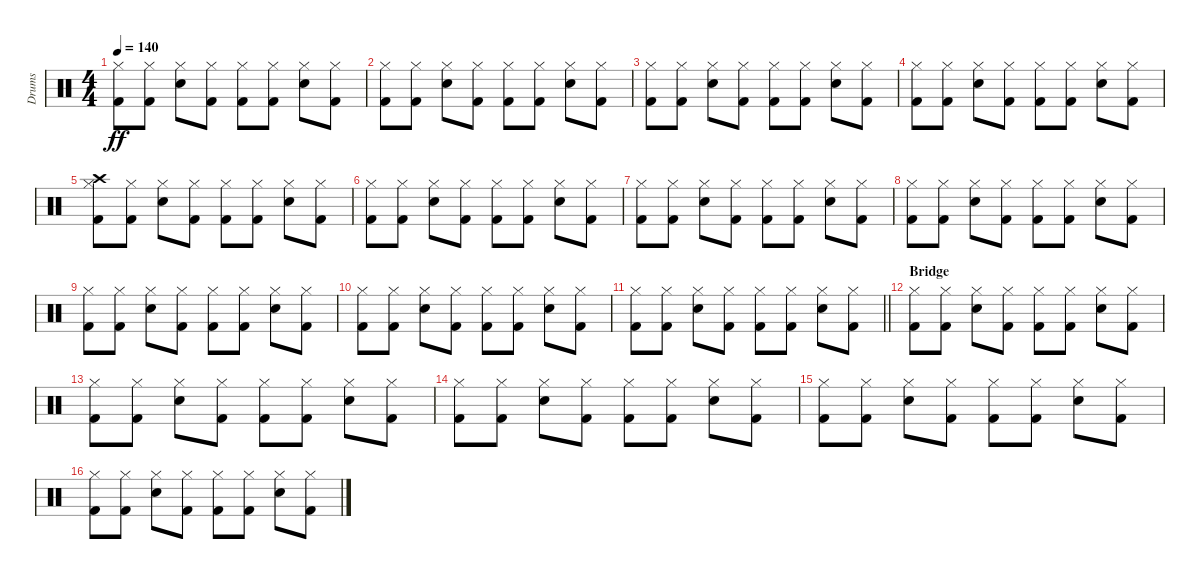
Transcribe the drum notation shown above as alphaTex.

\track ("Drums" "Drums") {instrument percussion}
\staff {score}
\articulation defaults
\ts (4 4)
\tempo 140
\clef neutral
\ks c
("Hi-Hat (closed)" "Kick (hit) 2").8{dy ff} ("Hi-Hat (closed)" "Kick (hit) 2").8 ("Hi-Hat (closed)" "Snare (hit) 2").8 ("Hi-Hat (closed)" "Kick (hit) 2").8 ("Hi-Hat (closed)" "Kick (hit) 2").8 ("Hi-Hat (closed)" "Kick (hit) 2").8 ("Hi-Hat (closed)" "Snare (hit) 2").8 ("Hi-Hat (closed)" "Kick (hit) 2").8 |
("Hi-Hat (closed)" "Kick (hit) 2").8 ("Hi-Hat (closed)" "Kick (hit) 2").8 ("Hi-Hat (closed)" "Snare (hit) 2").8 ("Hi-Hat (closed)" "Kick (hit) 2").8 ("Hi-Hat (closed)" "Kick (hit) 2").8 ("Hi-Hat (closed)" "Kick (hit) 2").8 ("Hi-Hat (closed)" "Snare (hit) 2").8 ("Hi-Hat (closed)" "Kick (hit) 2").8 |
("Hi-Hat (closed)" "Kick (hit) 2").8 ("Hi-Hat (closed)" "Kick (hit) 2").8 ("Hi-Hat (closed)" "Snare (hit) 2").8 ("Hi-Hat (closed)" "Kick (hit) 2").8 ("Hi-Hat (closed)" "Kick (hit) 2").8 ("Hi-Hat (closed)" "Kick (hit) 2").8 ("Hi-Hat (closed)" "Snare (hit) 2").8 ("Hi-Hat (closed)" "Kick (hit) 2").8 |
("Hi-Hat (closed)" "Kick (hit) 2").8 ("Hi-Hat (closed)" "Kick (hit) 2").8 ("Hi-Hat (closed)" "Snare (hit) 2").8 ("Hi-Hat (closed)" "Kick (hit) 2").8 ("Hi-Hat (closed)" "Kick (hit) 2").8 ("Hi-Hat (closed)" "Kick (hit) 2").8 ("Hi-Hat (closed)" "Snare (hit) 2").8 ("Hi-Hat (closed)" "Kick (hit) 2").8 |
("Crash high (hit)" "Hi-Hat (closed)" "Kick (hit) 2").8{volume 12} ("Hi-Hat (closed)" "Kick (hit) 2").8 ("Hi-Hat (closed)" "Snare (hit) 2").8 ("Hi-Hat (closed)" "Kick (hit) 2").8 ("Hi-Hat (closed)" "Kick (hit) 2").8 ("Hi-Hat (closed)" "Kick (hit) 2").8 ("Hi-Hat (closed)" "Snare (hit) 2").8 ("Hi-Hat (closed)" "Kick (hit) 2").8 |
("Hi-Hat (closed)" "Kick (hit) 2").8 ("Hi-Hat (closed)" "Kick (hit) 2").8 ("Hi-Hat (closed)" "Snare (hit) 2").8 ("Hi-Hat (closed)" "Kick (hit) 2").8 ("Hi-Hat (closed)" "Kick (hit) 2").8 ("Hi-Hat (closed)" "Kick (hit) 2").8 ("Hi-Hat (closed)" "Snare (hit) 2").8 ("Hi-Hat (closed)" "Kick (hit) 2").8 |
("Hi-Hat (closed)" "Kick (hit) 2").8 ("Hi-Hat (closed)" "Kick (hit) 2").8 ("Hi-Hat (closed)" "Snare (hit) 2").8 ("Hi-Hat (closed)" "Kick (hit) 2").8 ("Hi-Hat (closed)" "Kick (hit) 2").8 ("Hi-Hat (closed)" "Kick (hit) 2").8 ("Hi-Hat (closed)" "Snare (hit) 2").8 ("Hi-Hat (closed)" "Kick (hit) 2").8 |
("Hi-Hat (closed)" "Kick (hit) 2").8 ("Hi-Hat (closed)" "Kick (hit) 2").8 ("Hi-Hat (closed)" "Snare (hit) 2").8 ("Hi-Hat (closed)" "Kick (hit) 2").8 ("Hi-Hat (closed)" "Kick (hit) 2").8 ("Hi-Hat (closed)" "Kick (hit) 2").8 ("Hi-Hat (closed)" "Snare (hit) 2").8 ("Hi-Hat (closed)" "Kick (hit) 2").8 |
("Hi-Hat (closed)" "Kick (hit) 2").8 ("Hi-Hat (closed)" "Kick (hit) 2").8 ("Hi-Hat (closed)" "Snare (hit) 2").8 ("Hi-Hat (closed)" "Kick (hit) 2").8 ("Hi-Hat (closed)" "Kick (hit) 2").8 ("Hi-Hat (closed)" "Kick (hit) 2").8 ("Hi-Hat (closed)" "Snare (hit) 2").8 ("Hi-Hat (closed)" "Kick (hit) 2").8 |
("Hi-Hat (closed)" "Kick (hit) 2").8 ("Hi-Hat (closed)" "Kick (hit) 2").8 ("Hi-Hat (closed)" "Snare (hit) 2").8 ("Hi-Hat (closed)" "Kick (hit) 2").8 ("Hi-Hat (closed)" "Kick (hit) 2").8 ("Hi-Hat (closed)" "Kick (hit) 2").8 ("Hi-Hat (closed)" "Snare (hit) 2").8 ("Hi-Hat (closed)" "Kick (hit) 2").8 |
\barLineRight lightlight
("Hi-Hat (closed)" "Kick (hit) 2").8 ("Hi-Hat (closed)" "Kick (hit) 2").8 ("Hi-Hat (closed)" "Snare (hit) 2").8 ("Hi-Hat (closed)" "Kick (hit) 2").8 ("Hi-Hat (closed)" "Kick (hit) 2").8 ("Hi-Hat (closed)" "Kick (hit) 2").8 ("Hi-Hat (closed)" "Snare (hit) 2").8 ("Hi-Hat (closed)" "Kick (hit) 2").8 |
\section ("" "Bridge")
("Hi-Hat (closed)" "Kick (hit) 2").8 ("Hi-Hat (closed)" "Kick (hit) 2").8 ("Hi-Hat (closed)" "Snare (hit) 2").8 ("Hi-Hat (closed)" "Kick (hit) 2").8 ("Hi-Hat (closed)" "Kick (hit) 2").8 ("Hi-Hat (closed)" "Kick (hit) 2").8 ("Hi-Hat (closed)" "Snare (hit) 2").8 ("Hi-Hat (closed)" "Kick (hit) 2").8 |
("Hi-Hat (closed)" "Kick (hit) 2").8 ("Hi-Hat (closed)" "Kick (hit) 2").8 ("Hi-Hat (closed)" "Snare (hit) 2").8 ("Hi-Hat (closed)" "Kick (hit) 2").8 ("Hi-Hat (closed)" "Kick (hit) 2").8 ("Hi-Hat (closed)" "Kick (hit) 2").8 ("Hi-Hat (closed)" "Snare (hit) 2").8 ("Hi-Hat (closed)" "Kick (hit) 2").8 |
("Hi-Hat (closed)" "Kick (hit) 2").8 ("Hi-Hat (closed)" "Kick (hit) 2").8 ("Hi-Hat (closed)" "Snare (hit) 2").8 ("Hi-Hat (closed)" "Kick (hit) 2").8 ("Hi-Hat (closed)" "Kick (hit) 2").8 ("Hi-Hat (closed)" "Kick (hit) 2").8 ("Hi-Hat (closed)" "Snare (hit) 2").8 ("Hi-Hat (closed)" "Kick (hit) 2").8 |
("Hi-Hat (closed)" "Kick (hit) 2").8 ("Hi-Hat (closed)" "Kick (hit) 2").8 ("Hi-Hat (closed)" "Snare (hit) 2").8 ("Hi-Hat (closed)" "Kick (hit) 2").8 ("Hi-Hat (closed)" "Kick (hit) 2").8 ("Hi-Hat (closed)" "Kick (hit) 2").8 ("Hi-Hat (closed)" "Snare (hit) 2").8 ("Hi-Hat (closed)" "Kick (hit) 2").8 |
("Hi-Hat (closed)" "Kick (hit) 2").8 ("Hi-Hat (closed)" "Kick (hit) 2").8 ("Hi-Hat (closed)" "Snare (hit) 2").8 ("Hi-Hat (closed)" "Kick (hit) 2").8 ("Hi-Hat (closed)" "Kick (hit) 2").8 ("Hi-Hat (closed)" "Kick (hit) 2").8 ("Hi-Hat (closed)" "Snare (hit) 2").8 ("Hi-Hat (closed)" "Kick (hit) 2").8
